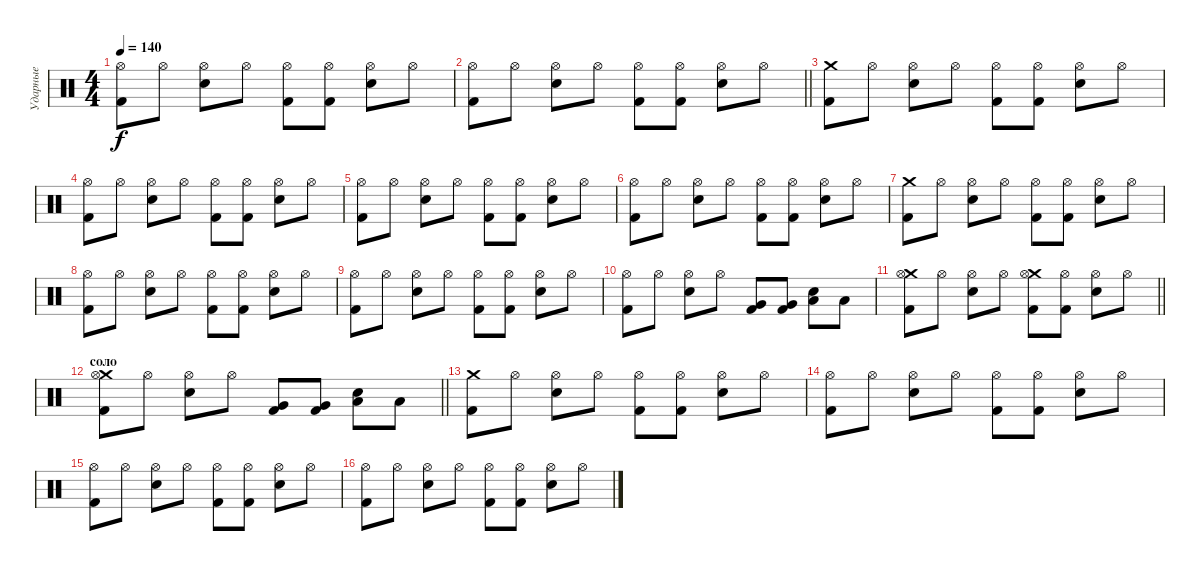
\track ("Ударные" "Ударные") {instrument percussion}
\staff {score}
\articulation defaults
\ts (4 4)
\tempo 140
\clef neutral
\ks c
("Hi-Hat (open)" "Kick (hit) 2").8{dy f} "Hi-Hat (open)".8 ("Hi-Hat (open)" "Electric Snare (hit)").8 "Hi-Hat (open)".8 ("Hi-Hat (open)" "Kick (hit) 2").8 ("Hi-Hat (open)" "Kick (hit) 2").8 ("Hi-Hat (open)" "Electric Snare (hit)").8 "Hi-Hat (open)".8 |
\barLineRight lightlight
("Hi-Hat (open)" "Kick (hit) 2").8 "Hi-Hat (open)".8 ("Hi-Hat (open)" "Electric Snare (hit)").8 "Hi-Hat (open)".8 ("Hi-Hat (open)" "Kick (hit) 2").8 ("Hi-Hat (open)" "Kick (hit) 2").8 ("Hi-Hat (open)" "Electric Snare (hit)").8 "Hi-Hat (open)".8 |
("Crash medium (hit)" "Kick (hit) 2").8 "Hi-Hat (open)".8 ("Hi-Hat (open)" "Electric Snare (hit)").8 "Hi-Hat (open)".8 ("Hi-Hat (open)" "Kick (hit) 2").8 ("Hi-Hat (open)" "Kick (hit) 2").8 ("Hi-Hat (open)" "Electric Snare (hit)").8 "Hi-Hat (open)".8 |
("Hi-Hat (open)" "Kick (hit) 2").8 "Hi-Hat (open)".8 ("Hi-Hat (open)" "Electric Snare (hit)").8 "Hi-Hat (open)".8 ("Hi-Hat (open)" "Kick (hit) 2").8 ("Hi-Hat (open)" "Kick (hit) 2").8 ("Hi-Hat (open)" "Electric Snare (hit)").8 "Hi-Hat (open)".8 |
("Hi-Hat (open)" "Kick (hit) 2").8 "Hi-Hat (open)".8 ("Hi-Hat (open)" "Electric Snare (hit)").8 "Hi-Hat (open)".8 ("Hi-Hat (open)" "Kick (hit) 2").8 ("Hi-Hat (open)" "Kick (hit) 2").8 ("Hi-Hat (open)" "Electric Snare (hit)").8 "Hi-Hat (open)".8 |
("Hi-Hat (open)" "Kick (hit) 2").8 "Hi-Hat (open)".8 ("Hi-Hat (open)" "Electric Snare (hit)").8 "Hi-Hat (open)".8 ("Hi-Hat (open)" "Kick (hit) 2").8 ("Hi-Hat (open)" "Kick (hit) 2").8 ("Hi-Hat (open)" "Electric Snare (hit)").8 "Hi-Hat (open)".8 |
("Crash medium (hit)" "Kick (hit) 2").8 "Hi-Hat (open)".8 ("Hi-Hat (open)" "Electric Snare (hit)").8 "Hi-Hat (open)".8 ("Hi-Hat (open)" "Kick (hit) 2").8 ("Hi-Hat (open)" "Kick (hit) 2").8 ("Hi-Hat (open)" "Electric Snare (hit)").8 "Hi-Hat (open)".8 |
("Hi-Hat (open)" "Kick (hit) 2").8 "Hi-Hat (open)".8 ("Hi-Hat (open)" "Electric Snare (hit)").8 "Hi-Hat (open)".8 ("Hi-Hat (open)" "Kick (hit) 2").8 ("Hi-Hat (open)" "Kick (hit) 2").8 ("Hi-Hat (open)" "Electric Snare (hit)").8 "Hi-Hat (open)".8 |
("Hi-Hat (open)" "Kick (hit) 2").8 "Hi-Hat (open)".8 ("Hi-Hat (open)" "Electric Snare (hit)").8 "Hi-Hat (open)".8 ("Hi-Hat (open)" "Kick (hit) 2").8 ("Hi-Hat (open)" "Kick (hit) 2").8 ("Hi-Hat (open)" "Electric Snare (hit)").8 "Hi-Hat (open)".8 |
("Hi-Hat (open)" "Kick (hit) 2").8 "Hi-Hat (open)".8 ("Hi-Hat (open)" "Electric Snare (hit)").8 "Hi-Hat (open)".8 ("Very Low Tom (hit)" "Kick (hit) 2").8 ("Very Low Tom (hit)" "Kick (hit) 2").8 ("Low Floor Tom (hit)" "Electric Snare (hit)").8 "Low Floor Tom (hit)".8 |
\barLineRight lightlight
("Crash medium (hit)" "Hi-Hat (open)" "Kick (hit) 2").8 "Hi-Hat (open)".8 ("Hi-Hat (open)" "Electric Snare (hit)").8 "Hi-Hat (open)".8 ("Crash medium (hit)" "Hi-Hat (open)" "Kick (hit) 2").8 ("Hi-Hat (open)" "Kick (hit) 2").8 ("Hi-Hat (open)" "Electric Snare (hit)").8 "Hi-Hat (open)".8 |
\section ("" "соло")
\barLineRight lightlight
("Crash medium (hit)" "Hi-Hat (open)" "Kick (hit) 2").8 "Hi-Hat (open)".8 ("Hi-Hat (open)" "Electric Snare (hit)").8 "Hi-Hat (open)".8 ("Very Low Tom (hit)" "Kick (hit) 2").8 ("Very Low Tom (hit)" "Kick (hit) 2").8 ("Low Floor Tom (hit)" "Electric Snare (hit)").8 "Low Floor Tom (hit)".8 |
("Crash medium (hit)" "Kick (hit) 2").8 "Hi-Hat (open)".8 ("Hi-Hat (open)" "Electric Snare (hit)").8 "Hi-Hat (open)".8 ("Hi-Hat (open)" "Kick (hit) 2").8 ("Hi-Hat (open)" "Kick (hit) 2").8 ("Hi-Hat (open)" "Electric Snare (hit)").8 "Hi-Hat (open)".8 |
("Hi-Hat (open)" "Kick (hit) 2").8 "Hi-Hat (open)".8 ("Hi-Hat (open)" "Electric Snare (hit)").8 "Hi-Hat (open)".8 ("Hi-Hat (open)" "Kick (hit) 2").8 ("Hi-Hat (open)" "Kick (hit) 2").8 ("Hi-Hat (open)" "Electric Snare (hit)").8 "Hi-Hat (open)".8 |
("Hi-Hat (open)" "Kick (hit) 2").8 "Hi-Hat (open)".8 ("Hi-Hat (open)" "Electric Snare (hit)").8 "Hi-Hat (open)".8 ("Hi-Hat (open)" "Kick (hit) 2").8 ("Hi-Hat (open)" "Kick (hit) 2").8 ("Hi-Hat (open)" "Electric Snare (hit)").8 "Hi-Hat (open)".8 |
("Hi-Hat (open)" "Kick (hit) 2").8 "Hi-Hat (open)".8 ("Hi-Hat (open)" "Electric Snare (hit)").8 "Hi-Hat (open)".8 ("Hi-Hat (open)" "Kick (hit) 2").8 ("Hi-Hat (open)" "Kick (hit) 2").8 ("Hi-Hat (open)" "Electric Snare (hit)").8 "Hi-Hat (open)".8
